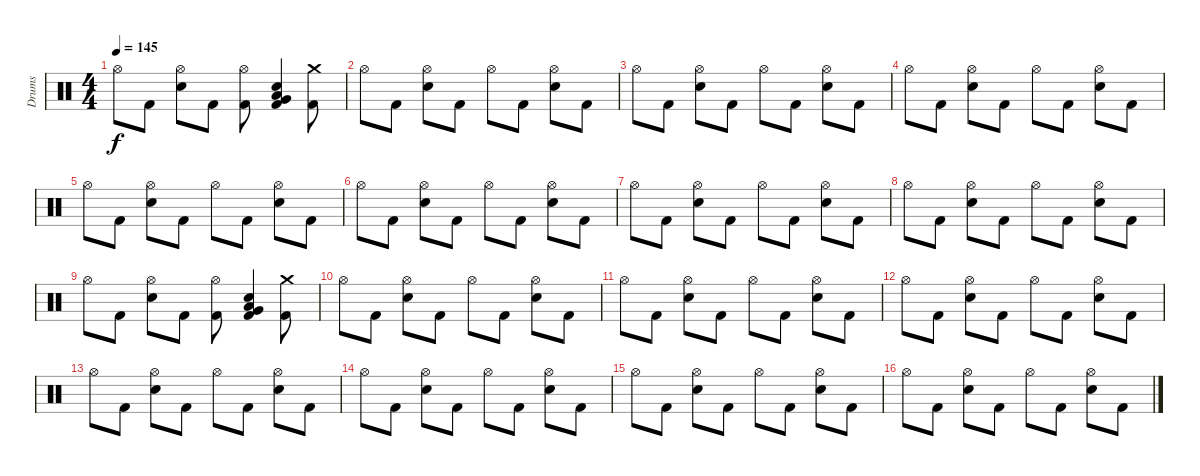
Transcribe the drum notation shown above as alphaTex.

\track ("Drums" "Drums") {instrument percussion}
\staff {score}
\articulation defaults
\ts (4 4)
\tempo 145
\clef neutral
\ks c "Hi-Hat (open)".8{dy f} "Kick (hit) 2".8
("Hi-Hat (open)" "Electric Snare (hit)").8 "Kick (hit) 2".8 ("Hi-Hat (open)" "Kick (hit) 2").8 ("Low Floor Tom (hit)" "Electric Snare (hit)" "Very Low Tom (hit)" "Kick (hit) 2").4 ("Crash medium (hit)" "Kick (hit) 2").8 |
"Hi-Hat (open)".8 "Kick (hit) 2".8 ("Hi-Hat (open)" "Electric Snare (hit)").8 "Kick (hit) 2".8 "Hi-Hat (open)".8 "Kick (hit) 2".8 ("Hi-Hat (open)" "Electric Snare (hit)").8 "Kick (hit) 2".8 |
"Hi-Hat (open)".8 "Kick (hit) 2".8 ("Hi-Hat (open)" "Electric Snare (hit)").8 "Kick (hit) 2".8 "Hi-Hat (open)".8 "Kick (hit) 2".8 ("Hi-Hat (open)" "Electric Snare (hit)").8 "Kick (hit) 2".8 |
"Hi-Hat (open)".8 "Kick (hit) 2".8 ("Hi-Hat (open)" "Electric Snare (hit)").8 "Kick (hit) 2".8 "Hi-Hat (open)".8 "Kick (hit) 2".8 ("Hi-Hat (open)" "Electric Snare (hit)").8 "Kick (hit) 2".8 |
"Hi-Hat (open)".8 "Kick (hit) 2".8 ("Hi-Hat (open)" "Electric Snare (hit)").8 "Kick (hit) 2".8 "Hi-Hat (open)".8 "Kick (hit) 2".8 ("Hi-Hat (open)" "Electric Snare (hit)").8 "Kick (hit) 2".8 |
"Hi-Hat (open)".8 "Kick (hit) 2".8 ("Hi-Hat (open)" "Electric Snare (hit)").8 "Kick (hit) 2".8 "Hi-Hat (open)".8 "Kick (hit) 2".8 ("Hi-Hat (open)" "Electric Snare (hit)").8 "Kick (hit) 2".8 |
"Hi-Hat (open)".8 "Kick (hit) 2".8 ("Hi-Hat (open)" "Electric Snare (hit)").8 "Kick (hit) 2".8 "Hi-Hat (open)".8 "Kick (hit) 2".8 ("Hi-Hat (open)" "Electric Snare (hit)").8 "Kick (hit) 2".8 |
"Hi-Hat (open)".8 "Kick (hit) 2".8 ("Hi-Hat (open)" "Electric Snare (hit)").8 "Kick (hit) 2".8 "Hi-Hat (open)".8 "Kick (hit) 2".8 ("Hi-Hat (open)" "Electric Snare (hit)").8 "Kick (hit) 2".8 |
"Hi-Hat (open)".8 "Kick (hit) 2".8 ("Hi-Hat (open)" "Electric Snare (hit)").8 "Kick (hit) 2".8 ("Hi-Hat (open)" "Kick (hit) 2").8 ("Low Floor Tom (hit)" "Electric Snare (hit)" "Very Low Tom (hit)" "Kick (hit) 2").4 ("Crash medium (hit)" "Kick (hit) 2").8 |
"Hi-Hat (open)".8 "Kick (hit) 2".8 ("Hi-Hat (open)" "Electric Snare (hit)").8 "Kick (hit) 2".8 "Hi-Hat (open)".8 "Kick (hit) 2".8 ("Hi-Hat (open)" "Electric Snare (hit)").8 "Kick (hit) 2".8 |
"Hi-Hat (open)".8 "Kick (hit) 2".8 ("Hi-Hat (open)" "Electric Snare (hit)").8 "Kick (hit) 2".8 "Hi-Hat (open)".8 "Kick (hit) 2".8 ("Hi-Hat (open)" "Electric Snare (hit)").8 "Kick (hit) 2".8 |
"Hi-Hat (open)".8 "Kick (hit) 2".8 ("Hi-Hat (open)" "Electric Snare (hit)").8 "Kick (hit) 2".8 "Hi-Hat (open)".8 "Kick (hit) 2".8 ("Hi-Hat (open)" "Electric Snare (hit)").8 "Kick (hit) 2".8 |
"Hi-Hat (open)".8 "Kick (hit) 2".8 ("Hi-Hat (open)" "Electric Snare (hit)").8 "Kick (hit) 2".8 "Hi-Hat (open)".8 "Kick (hit) 2".8 ("Hi-Hat (open)" "Electric Snare (hit)").8 "Kick (hit) 2".8 |
"Hi-Hat (open)".8 "Kick (hit) 2".8 ("Hi-Hat (open)" "Electric Snare (hit)").8 "Kick (hit) 2".8 "Hi-Hat (open)".8 "Kick (hit) 2".8 ("Hi-Hat (open)" "Electric Snare (hit)").8 "Kick (hit) 2".8 |
"Hi-Hat (open)".8 "Kick (hit) 2".8 ("Hi-Hat (open)" "Electric Snare (hit)").8 "Kick (hit) 2".8 "Hi-Hat (open)".8 "Kick (hit) 2".8 ("Hi-Hat (open)" "Electric Snare (hit)").8 "Kick (hit) 2".8 |
"Hi-Hat (open)".8 "Kick (hit) 2".8 ("Hi-Hat (open)" "Electric Snare (hit)").8 "Kick (hit) 2".8 "Hi-Hat (open)".8 "Kick (hit) 2".8 ("Hi-Hat (open)" "Electric Snare (hit)").8 "Kick (hit) 2".8
